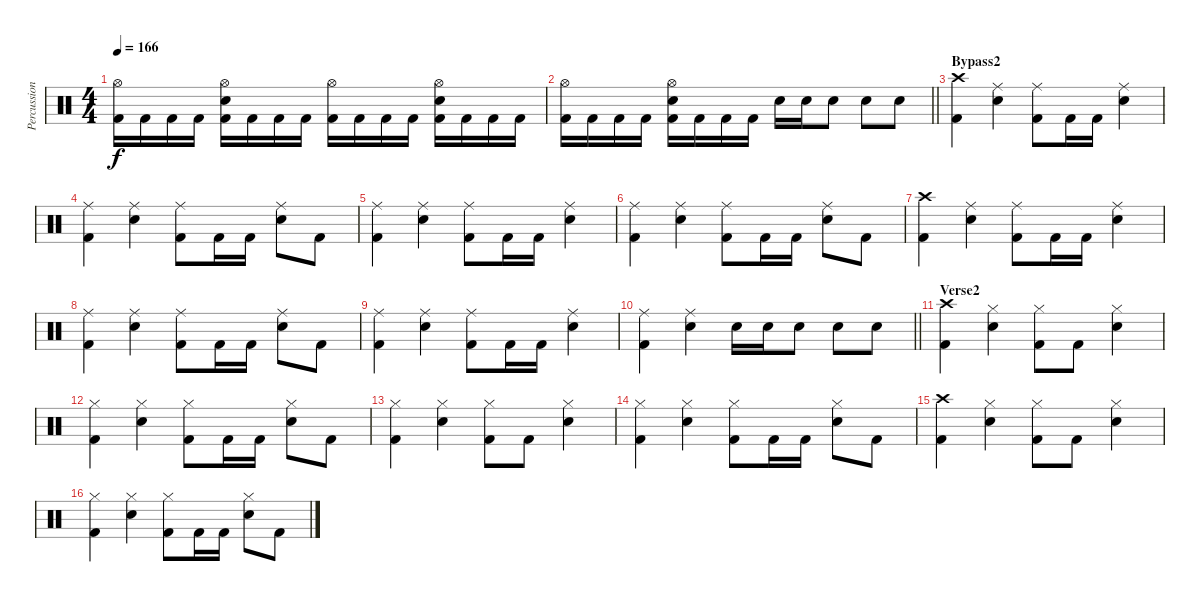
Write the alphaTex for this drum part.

\track ("Percussion" "Percussion") {solo instrument percussion}
\staff {score}
\articulation defaults
\ts (4 4)
\tempo 166
\clef neutral
\ks c
("Hi-Hat (open)" "Kick (hit) 2").16{dy f} "Kick (hit) 2".16 "Kick (hit) 2".16 "Kick (hit) 2".16 ("Snare (hit) 2" "Hi-Hat (open)" "Kick (hit) 2").16 "Kick (hit) 2".16 "Kick (hit) 2".16 "Kick (hit) 2".16 ("Hi-Hat (open)" "Kick (hit) 2").16 "Kick (hit) 2".16 "Kick (hit) 2".16 "Kick (hit) 2".16 ("Snare (hit) 2" "Hi-Hat (open)" "Kick (hit) 2").16 "Kick (hit) 2".16 "Kick (hit) 2".16 "Kick (hit) 2".16 |
\barLineRight lightlight
("Hi-Hat (open)" "Kick (hit) 2").16 "Kick (hit) 2".16 "Kick (hit) 2".16 "Kick (hit) 2".16 ("Snare (hit) 2" "Hi-Hat (open)" "Kick (hit) 2").16 "Kick (hit) 2".16 "Kick (hit) 2".16 "Kick (hit) 2".16 "Snare (hit) 2".16 "Snare (hit) 2".16 "Snare (hit) 2".8 "Snare (hit) 2".8 "Snare (hit) 2".8 |
\section ("" "Bypass2")
("Crash high (hit)" "Kick (hit) 2").4 ("Snare (hit) 2" "Ride (middle)").4 ("Ride (middle)" "Kick (hit) 2").8 "Kick (hit) 2".16 "Kick (hit) 2".16 ("Snare (hit) 2" "Ride (middle)").4 |
("Ride (middle)" "Kick (hit) 2").4 ("Snare (hit) 2" "Ride (middle)").4 ("Ride (middle)" "Kick (hit) 2").8 "Kick (hit) 2".16 "Kick (hit) 2".16 ("Ride (middle)" "Snare (hit) 2").8 "Kick (hit) 2".8 |
("Ride (middle)" "Kick (hit) 2").4 ("Snare (hit) 2" "Ride (middle)").4 ("Ride (middle)" "Kick (hit) 2").8 "Kick (hit) 2".16 "Kick (hit) 2".16 ("Ride (middle)" "Snare (hit) 2").4 |
("Ride (middle)" "Kick (hit) 2").4 ("Snare (hit) 2" "Ride (middle)").4 ("Ride (middle)" "Kick (hit) 2").8 "Kick (hit) 2".16 "Kick (hit) 2".16 ("Ride (middle)" "Snare (hit) 2").8 "Kick (hit) 2".8 |
("Crash high (hit)" "Kick (hit) 2").4 ("Snare (hit) 2" "Ride (middle)").4 ("Ride (middle)" "Kick (hit) 2").8 "Kick (hit) 2".16 "Kick (hit) 2".16 ("Snare (hit) 2" "Ride (middle)").4 |
("Ride (middle)" "Kick (hit) 2").4 ("Snare (hit) 2" "Ride (middle)").4 ("Ride (middle)" "Kick (hit) 2").8 "Kick (hit) 2".16 "Kick (hit) 2".16 ("Ride (middle)" "Snare (hit) 2").8 "Kick (hit) 2".8 |
("Ride (middle)" "Kick (hit) 2").4 ("Snare (hit) 2" "Ride (middle)").4 ("Ride (middle)" "Kick (hit) 2").8 "Kick (hit) 2".16 "Kick (hit) 2".16 ("Ride (middle)" "Snare (hit) 2").4 |
\barLineRight lightlight
("Ride (middle)" "Kick (hit) 2").4 ("Snare (hit) 2" "Ride (middle)").4 "Snare (hit) 2".16 "Snare (hit) 2".16 "Snare (hit) 2".8 "Snare (hit) 2".8 "Snare (hit) 2".8 |
\section ("" "Verse2")
\ks aminor
("Crash high (hit)" "Kick (hit) 2").4 ("Hi-Hat (closed)" "Snare (hit) 2").4 ("Hi-Hat (closed)" "Kick (hit) 2").8 "Kick (hit) 2".8 ("Hi-Hat (closed)" "Snare (hit) 2").4 |
("Hi-Hat (closed)" "Kick (hit) 2").4 ("Hi-Hat (closed)" "Snare (hit) 2").4 ("Hi-Hat (closed)" "Kick (hit) 2").8 "Kick (hit) 2".16 "Kick (hit) 2".16 ("Hi-Hat (closed)" "Snare (hit) 2").8 "Kick (hit) 2".8 |
("Hi-Hat (closed)" "Kick (hit) 2").4 ("Hi-Hat (closed)" "Snare (hit) 2").4 ("Hi-Hat (closed)" "Kick (hit) 2").8 "Kick (hit) 2".8 ("Hi-Hat (closed)" "Snare (hit) 2").4 |
("Hi-Hat (closed)" "Kick (hit) 2").4 ("Hi-Hat (closed)" "Snare (hit) 2").4 ("Hi-Hat (closed)" "Kick (hit) 2").8 "Kick (hit) 2".16 "Kick (hit) 2".16 ("Hi-Hat (closed)" "Snare (hit) 2").8 "Kick (hit) 2".8 |
("Crash high (hit)" "Kick (hit) 2").4 ("Hi-Hat (closed)" "Snare (hit) 2").4 ("Hi-Hat (closed)" "Kick (hit) 2").8 "Kick (hit) 2".8 ("Hi-Hat (closed)" "Snare (hit) 2").4 |
("Hi-Hat (closed)" "Kick (hit) 2").4 ("Hi-Hat (closed)" "Snare (hit) 2").4 ("Hi-Hat (closed)" "Kick (hit) 2").8 "Kick (hit) 2".16 "Kick (hit) 2".16 ("Hi-Hat (closed)" "Snare (hit) 2").8 "Kick (hit) 2".8
